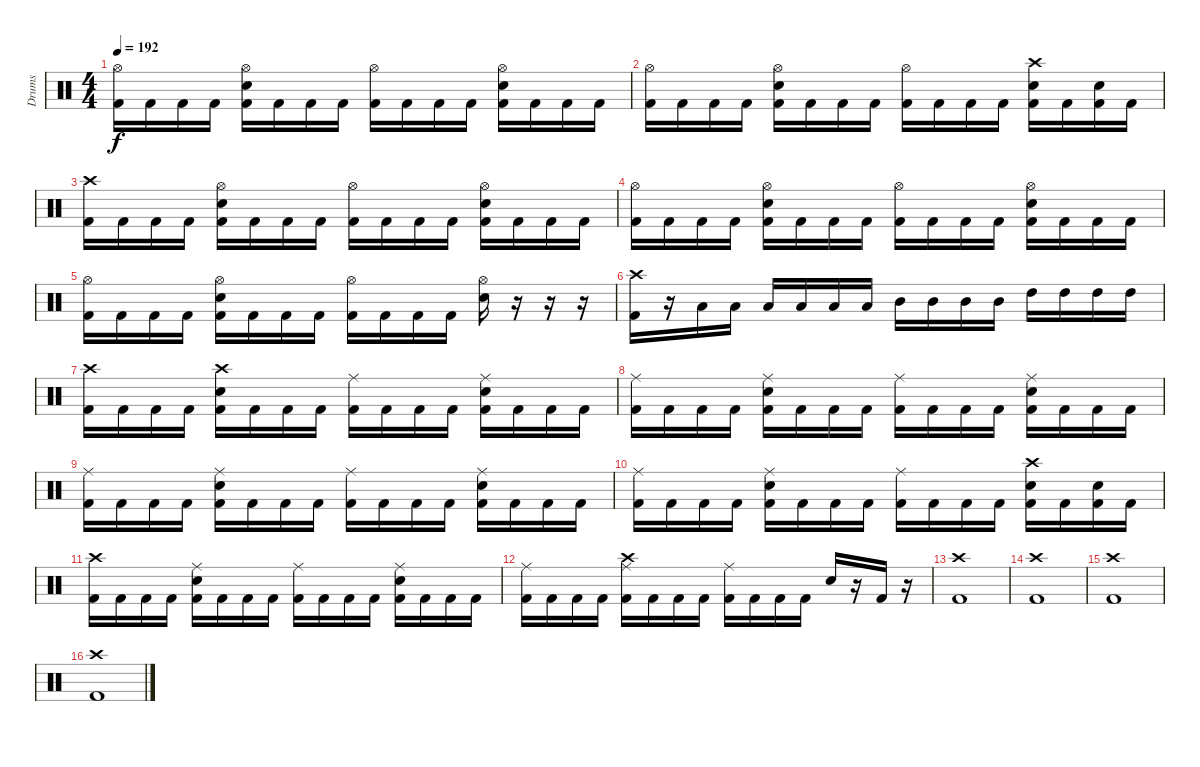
\track ("Drums" "Drums") {instrument percussion}
\staff {score}
\articulation defaults
\ts (4 4)
\tempo 192
\clef neutral
\ks c
("Hi-Hat (open)" "Kick (hit) 2").16{dy f} "Kick (hit) 2".16 "Kick (hit) 2".16 "Kick (hit) 2".16 ("Hi-Hat (open)" "Electric Snare (hit)" "Kick (hit) 2").16 "Kick (hit) 2".16 "Kick (hit) 2".16 "Kick (hit) 2".16 ("Hi-Hat (open)" "Kick (hit) 2").16 "Kick (hit) 2".16 "Kick (hit) 2".16 "Kick (hit) 2".16 ("Hi-Hat (open)" "Electric Snare (hit)" "Kick (hit) 2").16 "Kick (hit) 2".16 "Kick (hit) 2".16 "Kick (hit) 2".16 |
("Hi-Hat (open)" "Kick (hit) 2").16 "Kick (hit) 2".16 "Kick (hit) 2".16 "Kick (hit) 2".16 ("Hi-Hat (open)" "Electric Snare (hit)" "Kick (hit) 2").16 "Kick (hit) 2".16 "Kick (hit) 2".16 "Kick (hit) 2".16 ("Hi-Hat (open)" "Kick (hit) 2").16 "Kick (hit) 2".16 "Kick (hit) 2".16 "Kick (hit) 2".16 ("Crash high (hit)" "Electric Snare (hit)" "Kick (hit) 2").16 "Kick (hit) 2".16 ("Electric Snare (hit)" "Kick (hit) 2").16 "Kick (hit) 2".16 |
("Crash high (hit)" "Kick (hit) 2").16 "Kick (hit) 2".16 "Kick (hit) 2".16 "Kick (hit) 2".16 ("Hi-Hat (open)" "Electric Snare (hit)" "Kick (hit) 2").16 "Kick (hit) 2".16 "Kick (hit) 2".16 "Kick (hit) 2".16 ("Hi-Hat (open)" "Kick (hit) 2").16 "Kick (hit) 2".16 "Kick (hit) 2".16 "Kick (hit) 2".16 ("Hi-Hat (open)" "Electric Snare (hit)" "Kick (hit) 2").16 "Kick (hit) 2".16 "Kick (hit) 2".16 "Kick (hit) 2".16 |
("Hi-Hat (open)" "Kick (hit) 2").16 "Kick (hit) 2".16 "Kick (hit) 2".16 "Kick (hit) 2".16 ("Hi-Hat (open)" "Electric Snare (hit)" "Kick (hit) 2").16 "Kick (hit) 2".16 "Kick (hit) 2".16 "Kick (hit) 2".16 ("Hi-Hat (open)" "Kick (hit) 2").16 "Kick (hit) 2".16 "Kick (hit) 2".16 "Kick (hit) 2".16 ("Hi-Hat (open)" "Electric Snare (hit)" "Kick (hit) 2").16 "Kick (hit) 2".16 "Kick (hit) 2".16 "Kick (hit) 2".16 |
("Hi-Hat (open)" "Kick (hit) 2").16 "Kick (hit) 2".16 "Kick (hit) 2".16 "Kick (hit) 2".16 ("Hi-Hat (open)" "Electric Snare (hit)" "Kick (hit) 2").16 "Kick (hit) 2".16 "Kick (hit) 2".16 "Kick (hit) 2".16 ("Hi-Hat (open)" "Kick (hit) 2").16 "Kick (hit) 2".16 "Kick (hit) 2".16 "Kick (hit) 2".16 ("Hi-Hat (open)" "Electric Snare (hit)").16 r.16 r.16 r.16 |
("Crash high (hit)" "Kick (hit) 2").16 r.16 "Low Tom (hit)".16 "Low Tom (hit)".16 "Low Tom (hit)".16 "Low Tom (hit)".16 "Low Tom (hit)".16 "Low Tom (hit)".16 "Mid Tom (hit)".16 "Mid Tom (hit)".16 "Mid Tom (hit)".16 "Mid Tom (hit)".16 "High Tom (hit)".16 "High Tom (hit)".16 "High Tom (hit)".16 "High Tom (hit)".16 |
("Crash high (hit)" "Kick (hit) 2").16 "Kick (hit) 2".16 "Kick (hit) 2".16 "Kick (hit) 2".16 ("Crash high (hit)" "Electric Snare (hit)" "Kick (hit) 2").16 "Kick (hit) 2".16 "Kick (hit) 2".16 "Kick (hit) 2".16 ("Ride (middle)" "Kick (hit) 2").16 "Kick (hit) 2".16 "Kick (hit) 2".16 "Kick (hit) 2".16 ("Ride (middle)" "Electric Snare (hit)" "Kick (hit) 2").16 "Kick (hit) 2".16 "Kick (hit) 2".16 "Kick (hit) 2".16 |
("Ride (middle)" "Kick (hit) 2").16 "Kick (hit) 2".16 "Kick (hit) 2".16 "Kick (hit) 2".16 ("Ride (middle)" "Electric Snare (hit)" "Kick (hit) 2").16 "Kick (hit) 2".16 "Kick (hit) 2".16 "Kick (hit) 2".16 ("Ride (middle)" "Kick (hit) 2").16 "Kick (hit) 2".16 "Kick (hit) 2".16 "Kick (hit) 2".16 ("Ride (middle)" "Electric Snare (hit)" "Kick (hit) 2").16 "Kick (hit) 2".16 "Kick (hit) 2".16 "Kick (hit) 2".16 |
("Ride (middle)" "Kick (hit) 2").16 "Kick (hit) 2".16 "Kick (hit) 2".16 "Kick (hit) 2".16 ("Ride (middle)" "Electric Snare (hit)" "Kick (hit) 2").16 "Kick (hit) 2".16 "Kick (hit) 2".16 "Kick (hit) 2".16 ("Ride (middle)" "Kick (hit) 2").16 "Kick (hit) 2".16 "Kick (hit) 2".16 "Kick (hit) 2".16 ("Ride (middle)" "Electric Snare (hit)" "Kick (hit) 2").16 "Kick (hit) 2".16 "Kick (hit) 2".16 "Kick (hit) 2".16 |
("Ride (middle)" "Kick (hit) 2").16 "Kick (hit) 2".16 "Kick (hit) 2".16 "Kick (hit) 2".16 ("Ride (middle)" "Electric Snare (hit)" "Kick (hit) 2").16 "Kick (hit) 2".16 "Kick (hit) 2".16 "Kick (hit) 2".16 ("Ride (middle)" "Kick (hit) 2").16 "Kick (hit) 2".16 "Kick (hit) 2".16 "Kick (hit) 2".16 ("Crash high (hit)" "Electric Snare (hit)" "Kick (hit) 2").16 "Kick (hit) 2".16 ("Electric Snare (hit)" "Kick (hit) 2").16 "Kick (hit) 2".16 |
("Crash high (hit)" "Kick (hit) 2").16 "Kick (hit) 2".16 "Kick (hit) 2".16 "Kick (hit) 2".16 ("Ride (middle)" "Electric Snare (hit)" "Kick (hit) 2").16 "Kick (hit) 2".16 "Kick (hit) 2".16 "Kick (hit) 2".16 ("Ride (middle)" "Kick (hit) 2").16 "Kick (hit) 2".16 "Kick (hit) 2".16 "Kick (hit) 2".16 ("Ride (middle)" "Electric Snare (hit)" "Kick (hit) 2").16 "Kick (hit) 2".16 "Kick (hit) 2".16 "Kick (hit) 2".16 |
("Ride (middle)" "Kick (hit) 2").16 "Kick (hit) 2".16 "Kick (hit) 2".16 "Kick (hit) 2".16 ("Ride (middle)" "Crash high (hit)" "Kick (hit) 2").16 "Kick (hit) 2".16 "Kick (hit) 2".16 "Kick (hit) 2".16 ("Ride (middle)" "Kick (hit) 2").16 "Kick (hit) 2".16 "Kick (hit) 2".16 "Kick (hit) 2".16 "Electric Snare (hit)".16 r.16 "Kick (hit) 2".16 r.16 |
("Crash high (hit)" "Kick (hit) 2").1 |
("Crash high (hit)" "Kick (hit) 2").1 |
("Crash high (hit)" "Kick (hit) 2").1 |
("Crash high (hit)" "Kick (hit) 2").1
